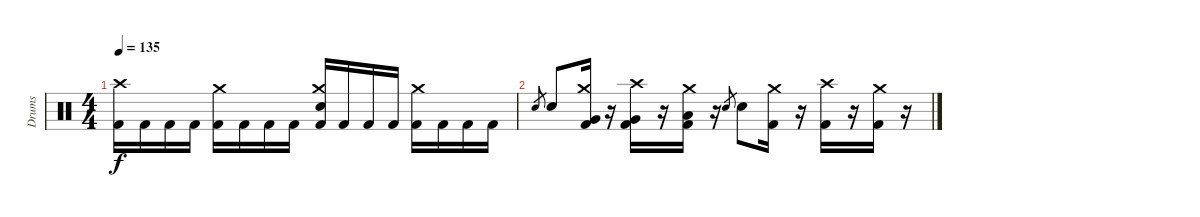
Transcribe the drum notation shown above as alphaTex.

\track ("Drums" "Drums") {instrument percussion}
\staff {score}
\articulation defaults
\ts (4 4)
\tempo 135
\clef neutral
\ks c
("Crash high (hit)" "Kick (hit) 2").16{dy f} "Kick (hit) 2".16 "Kick (hit) 2".16 "Kick (hit) 2".16 ("Crash medium (hit)" "Kick (hit) 2").16 "Kick (hit) 2".16 "Kick (hit) 2".16 "Kick (hit) 2".16 ("Crash medium (hit)" "Electric Snare (hit)" "Kick (hit) 2").16 "Kick (hit) 2".16 "Kick (hit) 2".16 "Kick (hit) 2".16 ("Crash medium (hit)" "Kick (hit) 2").16 "Kick (hit) 2".16 "Kick (hit) 2".16 "Kick (hit) 2".16 |
"Electric Snare (hit)".8{gr} "Electric Snare (hit)".8 ("Crash medium (hit)" "Very Low Tom (hit)" "Kick (hit) 2").16 r.16 ("Crash high (hit)" "Very Low Tom (hit)" "Kick (hit) 2").16 r.16 ("Crash medium (hit)" "Low Floor Tom (hit)" "Kick (hit) 2").16 r.16 "Electric Snare (hit)".8{gr} "Electric Snare (hit)".8 ("Crash medium (hit)" "Kick (hit) 2").16 r.16 ("Crash high (hit)" "Kick (hit) 2").16 r.16 ("Crash medium (hit)" "Kick (hit) 2").16 r.16
